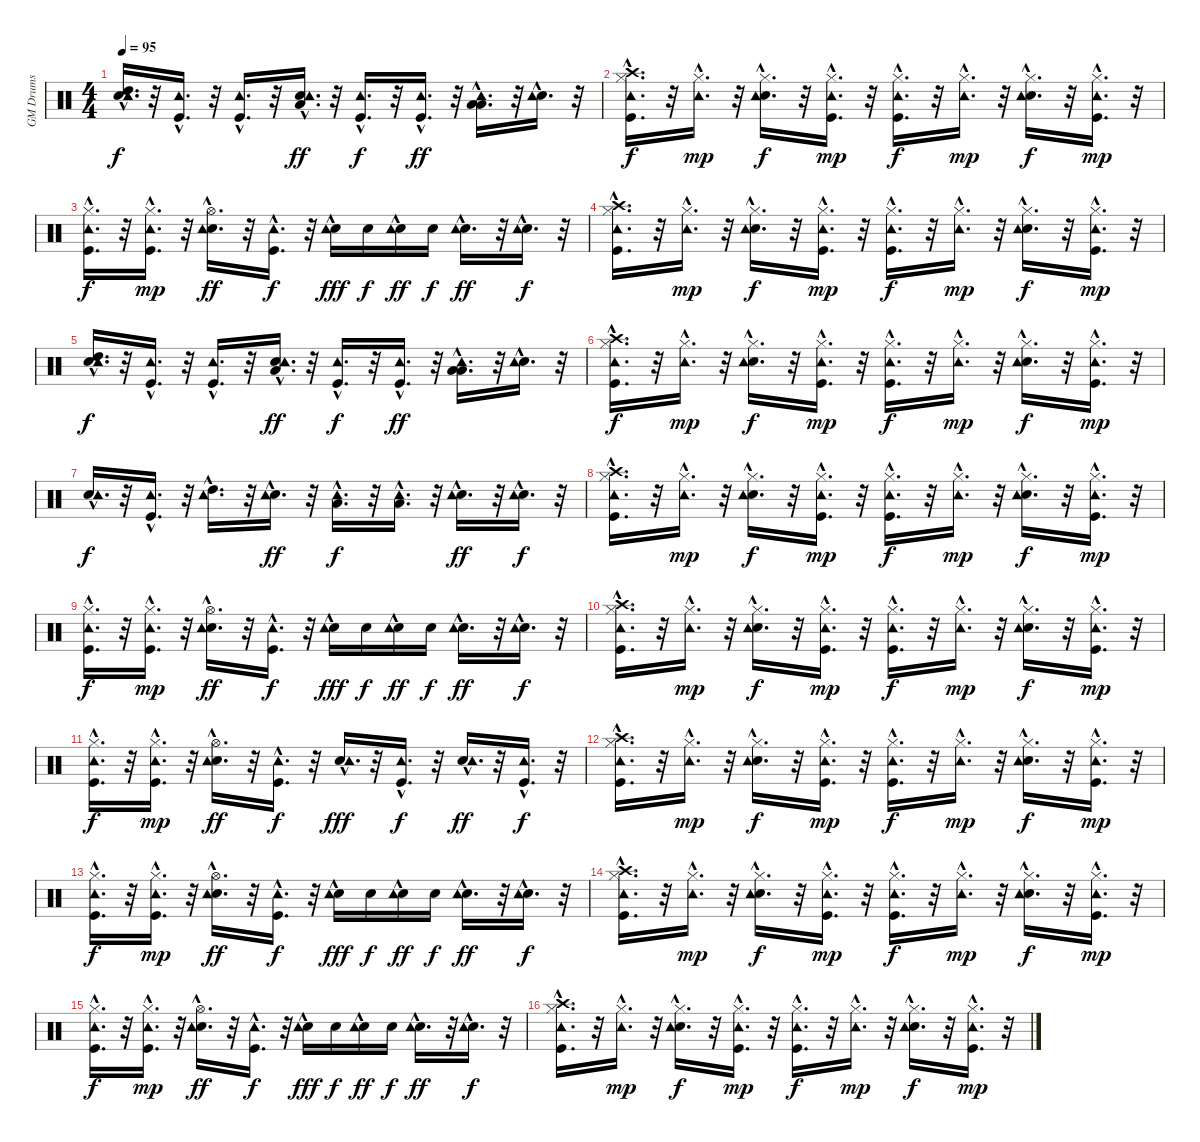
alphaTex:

\track ("GM Drums            " "GM Drums  ") {instrument percussion}
\staff {score}
\articulation defaults
\ts (4 4)
\tempo 95
\clef neutral
\ks c
("Snare (hit) 2" "High Tom (hit)" "Tambourine (hit)"{hac}).16{d dy f} r.32 ("Kick (hit)" "Tambourine (hit)"{hac}).16{d} r.32 ("Kick (hit)" "Tambourine (hit)"{hac}).16{d} r.32 ("Snare (hit) 2" "Low Tom (hit)" "Tambourine (hit)"{hac}).16{d dy ff} r.32 ("Kick (hit)" "Tambourine (hit)"{hac}).16{d dy f} r.32 ("Kick (hit)" "Tambourine (hit)"{hac}).16{d dy ff} r.32 ("Low Floor Tom (hit)" "Low Tom (hit)" "Tambourine (hit)"{hac}).16{d} r.32 ("Snare (hit) 2" "Tambourine (hit)"{hac}).16{d} r.32 |
("Kick (hit)" "Hi-Hat (closed)" "Crash high (hit)" "Tambourine (hit)"{hac}).16{d dy f} r.32 ("Hi-Hat (closed)" "Tambourine (hit)"{hac}).16{d dy mp} r.32 ("Snare (hit) 2" "Hi-Hat (closed)" "Tambourine (hit)"{hac}).16{d dy f} r.32 ("Kick (hit)" "Hi-Hat (closed)" "Tambourine (hit)"{hac}).16{d dy mp} r.32 ("Kick (hit)" "Hi-Hat (closed)" "Tambourine (hit)"{hac}).16{d dy f} r.32 ("Hi-Hat (closed)" "Tambourine (hit)"{hac}).16{d dy mp} r.32 ("Snare (hit) 2" "Hi-Hat (closed)" "Tambourine (hit)"{hac}).16{d dy f} r.32 ("Kick (hit)" "Hi-Hat (closed)" "Tambourine (hit)"{hac}).16{d dy mp} r.32 |
("Kick (hit)" "Hi-Hat (closed)" "Tambourine (hit)"{hac}).16{d dy f} r.32 ("Kick (hit)" "Hi-Hat (closed)" "Tambourine (hit)"{hac}).16{d dy mp} r.32 ("Snare (hit) 2" "Hi-Hat (open)" "Tambourine (hit)"{hac}).16{d dy ff} r.32 ("Kick (hit)" "Tambourine (hit)"{hac}).16{d dy f} r.32 ("Snare (hit) 2" "Tambourine (hit)"{hac}).16{dy fff} "Snare (hit) 2".16{dy f} ("Snare (hit) 2" "Tambourine (hit)"{hac}).16{dy ff} "Snare (hit) 2".16{dy f} ("Snare (hit) 2" "Tambourine (hit)"{hac}).16{d dy ff} r.32 ("Snare (hit) 2" "Tambourine (hit)"{hac}).16{d dy f} r.32 |
("Kick (hit)" "Hi-Hat (closed)" "Crash high (hit)" "Tambourine (hit)"{hac}).16{d} r.32 ("Hi-Hat (closed)" "Tambourine (hit)"{hac}).16{d dy mp} r.32 ("Snare (hit) 2" "Hi-Hat (closed)" "Tambourine (hit)"{hac}).16{d dy f} r.32 ("Kick (hit)" "Hi-Hat (closed)" "Tambourine (hit)"{hac}).16{d dy mp} r.32 ("Kick (hit)" "Hi-Hat (closed)" "Tambourine (hit)"{hac}).16{d dy f} r.32 ("Hi-Hat (closed)" "Tambourine (hit)"{hac}).16{d dy mp} r.32 ("Snare (hit) 2" "Hi-Hat (closed)" "Tambourine (hit)"{hac}).16{d dy f} r.32 ("Kick (hit)" "Hi-Hat (closed)" "Tambourine (hit)"{hac}).16{d dy mp} r.32 |
("Snare (hit) 2" "High Tom (hit)" "Tambourine (hit)"{hac}).16{d dy f} r.32 ("Kick (hit)" "Tambourine (hit)"{hac}).16{d} r.32 ("Kick (hit)" "Tambourine (hit)"{hac}).16{d} r.32 ("Snare (hit) 2" "Low Tom (hit)" "Tambourine (hit)"{hac}).16{d dy ff} r.32 ("Kick (hit)" "Tambourine (hit)"{hac}).16{d dy f} r.32 ("Kick (hit)" "Tambourine (hit)"{hac}).16{d dy ff} r.32 ("Low Floor Tom (hit)" "Low Tom (hit)" "Tambourine (hit)"{hac}).16{d} r.32 ("Snare (hit) 2" "Tambourine (hit)"{hac}).16{d} r.32 |
("Kick (hit)" "Hi-Hat (closed)" "Crash high (hit)" "Tambourine (hit)"{hac}).16{d dy f} r.32 ("Hi-Hat (closed)" "Tambourine (hit)"{hac}).16{d dy mp} r.32 ("Snare (hit) 2" "Hi-Hat (closed)" "Tambourine (hit)"{hac}).16{d dy f} r.32 ("Kick (hit)" "Hi-Hat (closed)" "Tambourine (hit)"{hac}).16{d dy mp} r.32 ("Kick (hit)" "Hi-Hat (closed)" "Tambourine (hit)"{hac}).16{d dy f} r.32 ("Hi-Hat (closed)" "Tambourine (hit)"{hac}).16{d dy mp} r.32 ("Snare (hit) 2" "Hi-Hat (closed)" "Tambourine (hit)"{hac}).16{d dy f} r.32 ("Kick (hit)" "Hi-Hat (closed)" "Tambourine (hit)"{hac}).16{d dy mp} r.32 |
("Snare (hit) 2" "Tambourine (hit)"{hac}).16{d dy f} r.32 ("Kick (hit)" "Tambourine (hit)"{hac}).16{d} r.32 ("High Tom (hit)" "Tambourine (hit)"{hac}).16{d} r.32 ("Snare (hit) 2" "Tambourine (hit)"{hac}).16{d dy ff} r.32 ("Low Tom (hit)" "Tambourine (hit)"{hac}).16{d dy f} r.32 ("Low Tom (hit)" "Tambourine (hit)"{hac}).16{d} r.32 ("Snare (hit) 2" "Tambourine (hit)"{hac}).16{d dy ff} r.32 ("Snare (hit) 2" "Tambourine (hit)"{hac}).16{d dy f} r.32 |
("Kick (hit)" "Hi-Hat (closed)" "Crash high (hit)" "Tambourine (hit)"{hac}).16{d} r.32 ("Hi-Hat (closed)" "Tambourine (hit)"{hac}).16{d dy mp} r.32 ("Snare (hit) 2" "Hi-Hat (closed)" "Tambourine (hit)"{hac}).16{d dy f} r.32 ("Kick (hit)" "Hi-Hat (closed)" "Tambourine (hit)"{hac}).16{d dy mp} r.32 ("Kick (hit)" "Hi-Hat (closed)" "Tambourine (hit)"{hac}).16{d dy f} r.32 ("Hi-Hat (closed)" "Tambourine (hit)"{hac}).16{d dy mp} r.32 ("Snare (hit) 2" "Hi-Hat (closed)" "Tambourine (hit)"{hac}).16{d dy f} r.32 ("Kick (hit)" "Hi-Hat (closed)" "Tambourine (hit)"{hac}).16{d dy mp} r.32 |
("Kick (hit)" "Hi-Hat (closed)" "Tambourine (hit)"{hac}).16{d dy f} r.32 ("Kick (hit)" "Hi-Hat (closed)" "Tambourine (hit)"{hac}).16{d dy mp} r.32 ("Snare (hit) 2" "Hi-Hat (open)" "Tambourine (hit)"{hac}).16{d dy ff} r.32 ("Kick (hit)" "Tambourine (hit)"{hac}).16{d dy f} r.32 ("Snare (hit) 2" "Tambourine (hit)"{hac}).16{dy fff} "Snare (hit) 2".16{dy f} ("Snare (hit) 2" "Tambourine (hit)"{hac}).16{dy ff} "Snare (hit) 2".16{dy f} ("Snare (hit) 2" "Tambourine (hit)"{hac}).16{d dy ff} r.32 ("Snare (hit) 2" "Tambourine (hit)"{hac}).16{d dy f} r.32 |
("Kick (hit)" "Hi-Hat (closed)" "Crash high (hit)" "Tambourine (hit)"{hac}).16{d} r.32 ("Hi-Hat (closed)" "Tambourine (hit)"{hac}).16{d dy mp} r.32 ("Snare (hit) 2" "Hi-Hat (closed)" "Tambourine (hit)"{hac}).16{d dy f} r.32 ("Kick (hit)" "Hi-Hat (closed)" "Tambourine (hit)"{hac}).16{d dy mp} r.32 ("Kick (hit)" "Hi-Hat (closed)" "Tambourine (hit)"{hac}).16{d dy f} r.32 ("Hi-Hat (closed)" "Tambourine (hit)"{hac}).16{d dy mp} r.32 ("Snare (hit) 2" "Hi-Hat (closed)" "Tambourine (hit)"{hac}).16{d dy f} r.32 ("Kick (hit)" "Hi-Hat (closed)" "Tambourine (hit)"{hac}).16{d dy mp} r.32 |
("Kick (hit)" "Hi-Hat (closed)" "Tambourine (hit)"{hac}).16{d dy f} r.32 ("Kick (hit)" "Hi-Hat (closed)" "Tambourine (hit)"{hac}).16{d dy mp} r.32 ("Snare (hit) 2" "Hi-Hat (open)" "Tambourine (hit)"{hac}).16{d dy ff} r.32 ("Kick (hit)" "Tambourine (hit)"{hac}).16{d dy f} r.32 ("Snare (hit) 2" "Tambourine (hit)"{hac}).16{d dy fff} r.32 ("Kick (hit)" "Tambourine (hit)"{hac}).16{d dy f} r.32 ("Snare (hit) 2" "Tambourine (hit)"{hac}).16{d dy ff} r.32 ("Kick (hit)" "Tambourine (hit)"{hac}).16{d dy f} r.32 |
("Kick (hit)" "Hi-Hat (closed)" "Crash high (hit)" "Tambourine (hit)"{hac}).16{d} r.32 ("Hi-Hat (closed)" "Tambourine (hit)"{hac}).16{d dy mp} r.32 ("Snare (hit) 2" "Hi-Hat (closed)" "Tambourine (hit)"{hac}).16{d dy f} r.32 ("Kick (hit)" "Hi-Hat (closed)" "Tambourine (hit)"{hac}).16{d dy mp} r.32 ("Kick (hit)" "Hi-Hat (closed)" "Tambourine (hit)"{hac}).16{d dy f} r.32 ("Hi-Hat (closed)" "Tambourine (hit)"{hac}).16{d dy mp} r.32 ("Snare (hit) 2" "Hi-Hat (closed)" "Tambourine (hit)"{hac}).16{d dy f} r.32 ("Kick (hit)" "Hi-Hat (closed)" "Tambourine (hit)"{hac}).16{d dy mp} r.32 |
("Kick (hit)" "Hi-Hat (closed)" "Tambourine (hit)"{hac}).16{d dy f} r.32 ("Kick (hit)" "Hi-Hat (closed)" "Tambourine (hit)"{hac}).16{d dy mp} r.32 ("Snare (hit) 2" "Hi-Hat (open)" "Tambourine (hit)"{hac}).16{d dy ff} r.32 ("Kick (hit)" "Tambourine (hit)"{hac}).16{d dy f} r.32 ("Snare (hit) 2" "Tambourine (hit)"{hac}).16{dy fff} "Snare (hit) 2".16{dy f} ("Snare (hit) 2" "Tambourine (hit)"{hac}).16{dy ff} "Snare (hit) 2".16{dy f} ("Snare (hit) 2" "Tambourine (hit)"{hac}).16{d dy ff} r.32 ("Snare (hit) 2" "Tambourine (hit)"{hac}).16{d dy f} r.32 |
("Kick (hit)" "Hi-Hat (closed)" "Crash high (hit)" "Tambourine (hit)"{hac}).16{d} r.32 ("Hi-Hat (closed)" "Tambourine (hit)"{hac}).16{d dy mp} r.32 ("Snare (hit) 2" "Hi-Hat (closed)" "Tambourine (hit)"{hac}).16{d dy f} r.32 ("Kick (hit)" "Hi-Hat (closed)" "Tambourine (hit)"{hac}).16{d dy mp} r.32 ("Kick (hit)" "Hi-Hat (closed)" "Tambourine (hit)"{hac}).16{d dy f} r.32 ("Hi-Hat (closed)" "Tambourine (hit)"{hac}).16{d dy mp} r.32 ("Snare (hit) 2" "Hi-Hat (closed)" "Tambourine (hit)"{hac}).16{d dy f} r.32 ("Kick (hit)" "Hi-Hat (closed)" "Tambourine (hit)"{hac}).16{d dy mp} r.32 |
("Kick (hit)" "Hi-Hat (closed)" "Tambourine (hit)"{hac}).16{d dy f} r.32 ("Kick (hit)" "Hi-Hat (closed)" "Tambourine (hit)"{hac}).16{d dy mp} r.32 ("Snare (hit) 2" "Hi-Hat (open)" "Tambourine (hit)"{hac}).16{d dy ff} r.32 ("Kick (hit)" "Tambourine (hit)"{hac}).16{d dy f} r.32 ("Snare (hit) 2" "Tambourine (hit)"{hac}).16{dy fff} "Snare (hit) 2".16{dy f} ("Snare (hit) 2" "Tambourine (hit)"{hac}).16{dy ff} "Snare (hit) 2".16{dy f} ("Snare (hit) 2" "Tambourine (hit)"{hac}).16{d dy ff} r.32 ("Snare (hit) 2" "Tambourine (hit)"{hac}).16{d dy f} r.32 |
("Kick (hit)" "Hi-Hat (closed)" "Crash high (hit)" "Tambourine (hit)"{hac}).16{d} r.32 ("Hi-Hat (closed)" "Tambourine (hit)"{hac}).16{d dy mp} r.32 ("Snare (hit) 2" "Hi-Hat (closed)" "Tambourine (hit)"{hac}).16{d dy f} r.32 ("Kick (hit)" "Hi-Hat (closed)" "Tambourine (hit)"{hac}).16{d dy mp} r.32 ("Kick (hit)" "Hi-Hat (closed)" "Tambourine (hit)"{hac}).16{d dy f} r.32 ("Hi-Hat (closed)" "Tambourine (hit)"{hac}).16{d dy mp} r.32 ("Snare (hit) 2" "Hi-Hat (closed)" "Tambourine (hit)"{hac}).16{d dy f} r.32 ("Kick (hit)" "Hi-Hat (closed)" "Tambourine (hit)"{hac}).16{d dy mp} r.32
